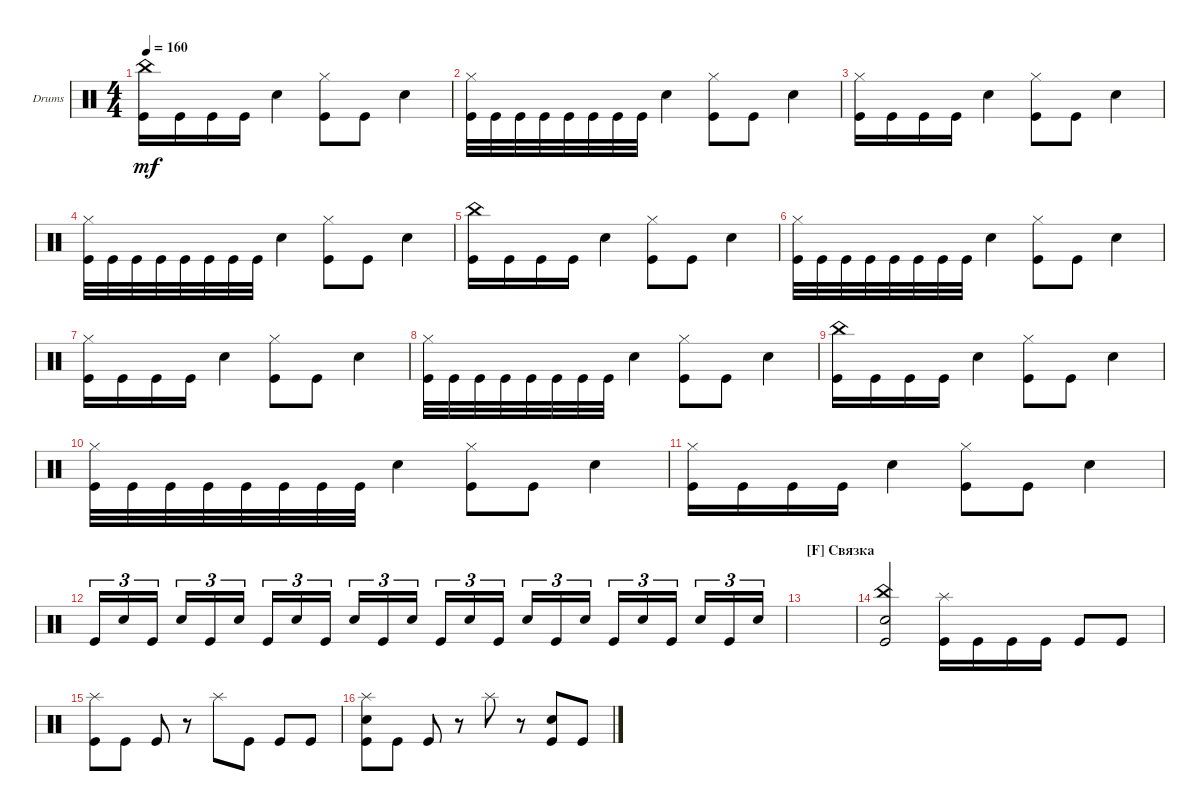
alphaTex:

\defaultSystemsLayout 4
\bracketExtendMode groupsimilarinstruments
\firstSystemTrackNameOrientation horizontal
\otherSystemsTrackNameOrientation horizontal
\track ("Drumkit" "Drums") {instrument percussion}
\staff {score}
\articulation defaults
\ts (4 4)
\tempo 160
\clef neutral
\ks c
("Kick (hit)" "China (hit)").16{dy mf} "Kick (hit)".16 "Kick (hit)".16 "Kick (hit)".16 "Snare (hit) 2".4 ("Kick (hit)" "Hi-Hat (closed)").8 "Kick (hit)".8 "Snare (hit) 2".4 |
("Kick (hit)" "Hi-Hat (closed)").32 "Kick (hit)".32 "Kick (hit)".32 "Kick (hit)".32 "Kick (hit)".32 "Kick (hit)".32 "Kick (hit)".32 "Kick (hit)".32 "Snare (hit) 2".4 ("Kick (hit)" "Hi-Hat (closed)").8 "Kick (hit)".8 "Snare (hit) 2".4 |
("Kick (hit)" "Hi-Hat (closed)").16 "Kick (hit)".16 "Kick (hit)".16 "Kick (hit)".16 "Snare (hit) 2".4 ("Kick (hit)" "Hi-Hat (closed)").8 "Kick (hit)".8 "Snare (hit) 2".4 |
("Kick (hit)" "Hi-Hat (closed)").32 "Kick (hit)".32 "Kick (hit)".32 "Kick (hit)".32 "Kick (hit)".32 "Kick (hit)".32 "Kick (hit)".32 "Kick (hit)".32 "Snare (hit) 2".4 ("Kick (hit)" "Hi-Hat (closed)").8 "Kick (hit)".8 "Snare (hit) 2".4 |
("Kick (hit)" "China (hit)").16 "Kick (hit)".16 "Kick (hit)".16 "Kick (hit)".16 "Snare (hit) 2".4 ("Kick (hit)" "Hi-Hat (closed)").8 "Kick (hit)".8 "Snare (hit) 2".4 |
("Kick (hit)" "Hi-Hat (closed)").32 "Kick (hit)".32 "Kick (hit)".32 "Kick (hit)".32 "Kick (hit)".32 "Kick (hit)".32 "Kick (hit)".32 "Kick (hit)".32 "Snare (hit) 2".4 ("Kick (hit)" "Hi-Hat (closed)").8 "Kick (hit)".8 "Snare (hit) 2".4 |
("Kick (hit)" "Hi-Hat (closed)").16 "Kick (hit)".16 "Kick (hit)".16 "Kick (hit)".16 "Snare (hit) 2".4 ("Kick (hit)" "Hi-Hat (closed)").8 "Kick (hit)".8 "Snare (hit) 2".4 |
("Kick (hit)" "Hi-Hat (closed)").32 "Kick (hit)".32 "Kick (hit)".32 "Kick (hit)".32 "Kick (hit)".32 "Kick (hit)".32 "Kick (hit)".32 "Kick (hit)".32 "Snare (hit) 2".4 ("Kick (hit)" "Hi-Hat (closed)").8 "Kick (hit)".8 "Snare (hit) 2".4 |
("Kick (hit)" "China (hit)").16 "Kick (hit)".16 "Kick (hit)".16 "Kick (hit)".16 "Snare (hit) 2".4 ("Kick (hit)" "Hi-Hat (closed)").8 "Kick (hit)".8 "Snare (hit) 2".4 |
("Kick (hit)" "Hi-Hat (closed)").32 "Kick (hit)".32 "Kick (hit)".32 "Kick (hit)".32 "Kick (hit)".32 "Kick (hit)".32 "Kick (hit)".32 "Kick (hit)".32 "Snare (hit) 2".4 ("Kick (hit)" "Hi-Hat (closed)").8 "Kick (hit)".8 "Snare (hit) 2".4 |
("Kick (hit)" "Hi-Hat (closed)").16 "Kick (hit)".16 "Kick (hit)".16 "Kick (hit)".16 "Snare (hit) 2".4 ("Kick (hit)" "Hi-Hat (closed)").8 "Kick (hit)".8 "Snare (hit) 2".4 |
"Kick (hit)".16{tu (3 2)} "Snare (hit) 2".16{tu (3 2)} "Kick (hit)".16{tu (3 2)} "Snare (hit) 2".16{tu (3 2)} "Kick (hit)".16{tu (3 2)} "Snare (hit) 2".16{tu (3 2)} "Kick (hit)".16{tu (3 2)} "Snare (hit) 2".16{tu (3 2)} "Kick (hit)".16{tu (3 2)} "Snare (hit) 2".16{tu (3 2)} "Kick (hit)".16{tu (3 2)} "Snare (hit) 2".16{tu (3 2)} "Kick (hit)".16{tu (3 2)} "Snare (hit) 2".16{tu (3 2)} "Kick (hit)".16{tu (3 2)} "Snare (hit) 2".16{tu (3 2)} "Kick (hit)".16{tu (3 2)} "Snare (hit) 2".16{tu (3 2)} "Kick (hit)".16{tu (3 2)} "Snare (hit) 2".16{tu (3 2)} "Kick (hit)".16{tu (3 2)} "Snare (hit) 2".16{tu (3 2)} "Kick (hit)".16{tu (3 2)} "Snare (hit) 2".16{tu (3 2)} |
\section ("F" "Связка")
|
("Kick (hit)" "Snare (hit) 2" "China (hit)").2 ("Kick (hit)" "Splash (hit)").16 "Kick (hit)".16 "Kick (hit)".16 "Kick (hit)".16 "Kick (hit)".8 "Kick (hit)".8 |
("Kick (hit)" "Splash (hit)").8 "Kick (hit)".8 "Kick (hit)".8 r.8 "Splash (hit)".8 "Kick (hit)".8 "Kick (hit)".8 "Kick (hit)".8 |
("Kick (hit)" "Snare (hit) 2" "Splash (hit)").8 "Kick (hit)".8 "Kick (hit)".8 r.8 "Splash (hit)".8 r.8 ("Kick (hit)" "Snare (hit) 2").8 "Kick (hit)".8
